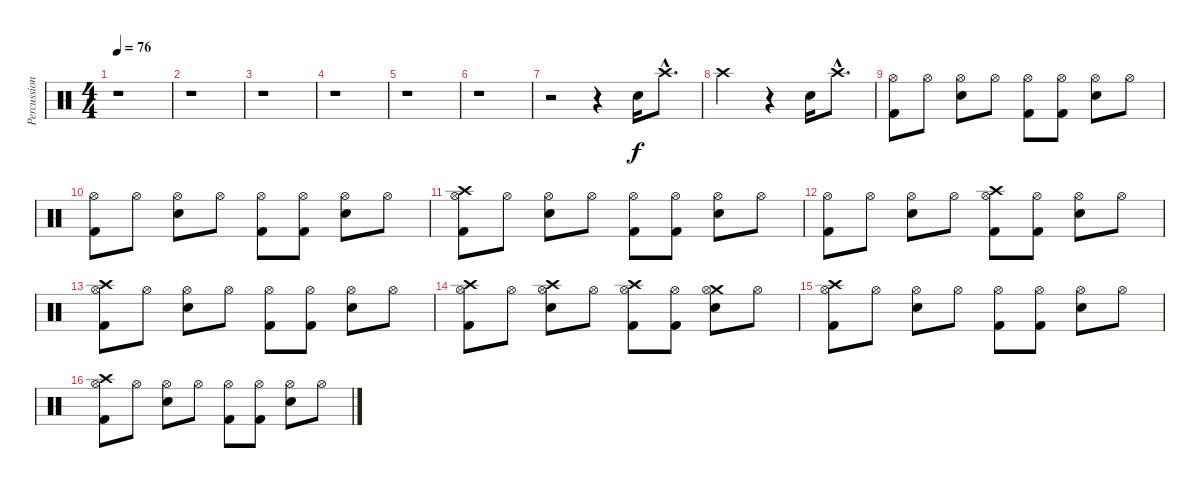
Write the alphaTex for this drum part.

\track ("Percussions" "Percussion") {instrument percussion}
\staff {score}
\articulation defaults
\ts (4 4)
\tempo 76
\clef neutral
\ks c
r.1{dy f} |
r.1 |
r.1 |
r.1 |
r.1 |
r.1 |
r.2 r.4 "Snare (hit) 2".16 "Crash high (hit)"{hac}.8{d} |
"Crash high (hit)".2 r.4 "Snare (hit) 2".16 "Crash high (hit)"{hac}.8{d} |
("Kick (hit) 2" "Hi-Hat (open)").8 "Hi-Hat (open)".8 ("Hi-Hat (open)" "Snare (hit) 2").8 "Hi-Hat (open)".8 ("Kick (hit) 2" "Hi-Hat (open)").8 ("Kick (hit) 2" "Hi-Hat (open)").8 ("Hi-Hat (open)" "Snare (hit) 2").8 "Hi-Hat (open)".8 |
("Kick (hit) 2" "Hi-Hat (open)").8 "Hi-Hat (open)".8 ("Hi-Hat (open)" "Snare (hit) 2").8 "Hi-Hat (open)".8 ("Kick (hit) 2" "Hi-Hat (open)").8 ("Kick (hit) 2" "Hi-Hat (open)").8 ("Hi-Hat (open)" "Snare (hit) 2").8 "Hi-Hat (open)".8 |
("Crash high (hit)" "Kick (hit) 2" "Hi-Hat (open)").8 "Hi-Hat (open)".8 ("Hi-Hat (open)" "Snare (hit) 2").8 "Hi-Hat (open)".8 ("Kick (hit) 2" "Hi-Hat (open)").8 ("Kick (hit) 2" "Hi-Hat (open)").8 ("Hi-Hat (open)" "Snare (hit) 2").8 "Hi-Hat (open)".8 |
("Kick (hit) 2" "Hi-Hat (open)").8 "Hi-Hat (open)".8 ("Hi-Hat (open)" "Snare (hit) 2").8 "Hi-Hat (open)".8 ("Crash high (hit)" "Kick (hit) 2" "Hi-Hat (open)").8 ("Kick (hit) 2" "Hi-Hat (open)").8 ("Hi-Hat (open)" "Snare (hit) 2").8 "Hi-Hat (open)".8 |
("Crash high (hit)" "Kick (hit) 2" "Hi-Hat (open)").8 "Hi-Hat (open)".8 ("Hi-Hat (open)" "Snare (hit) 2").8 "Hi-Hat (open)".8 ("Kick (hit) 2" "Hi-Hat (open)").8 ("Kick (hit) 2" "Hi-Hat (open)").8 ("Hi-Hat (open)" "Snare (hit) 2").8 "Hi-Hat (open)".8 |
("Crash high (hit)" "Kick (hit) 2" "Hi-Hat (open)").8 "Hi-Hat (open)".8 ("Crash high (hit)" "Hi-Hat (open)" "Snare (hit) 2").8 "Hi-Hat (open)".8 ("Crash high (hit)" "Kick (hit) 2" "Hi-Hat (open)").8 ("Kick (hit) 2" "Hi-Hat (open)").8 ("Crash medium (hit)" "Hi-Hat (open)" "Snare (hit) 2").8 "Hi-Hat (open)".8 |
("Crash high (hit)" "Kick (hit) 2" "Hi-Hat (open)").8 "Hi-Hat (open)".8 ("Hi-Hat (open)" "Snare (hit) 2").8 "Hi-Hat (open)".8 ("Kick (hit) 2" "Hi-Hat (open)").8 ("Kick (hit) 2" "Hi-Hat (open)").8 ("Hi-Hat (open)" "Snare (hit) 2").8 "Hi-Hat (open)".8 |
("Crash high (hit)" "Kick (hit) 2" "Hi-Hat (open)").8 "Hi-Hat (open)".8 ("Hi-Hat (open)" "Snare (hit) 2").8 "Hi-Hat (open)".8 ("Kick (hit) 2" "Hi-Hat (open)").8 ("Kick (hit) 2" "Hi-Hat (open)").8 ("Hi-Hat (open)" "Snare (hit) 2").8 "Hi-Hat (open)".8
